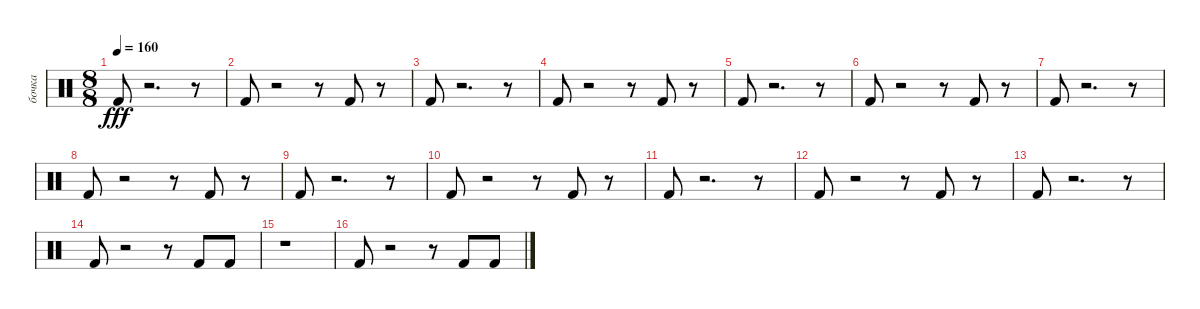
\track ("бочка" "бочка") {instrument percussion}
\staff {score}
\articulation defaults
\ts (8 8)
\tempo 160
\clef neutral
\ks c "Kick (hit) 2".8{dy fff}
r.2{d} r.8 |
"Kick (hit) 2".8 r.2 r.8 "Kick (hit) 2".8 r.8 |
"Kick (hit) 2".8 r.2{d} r.8 |
"Kick (hit) 2".8 r.2 r.8 "Kick (hit) 2".8 r.8 |
"Kick (hit) 2".8 r.2{d} r.8 |
"Kick (hit) 2".8 r.2 r.8 "Kick (hit) 2".8 r.8 |
"Kick (hit) 2".8 r.2{d} r.8 |
"Kick (hit) 2".8 r.2 r.8 "Kick (hit) 2".8 r.8 |
"Kick (hit) 2".8 r.2{d} r.8 |
"Kick (hit) 2".8 r.2 r.8 "Kick (hit) 2".8 r.8 |
"Kick (hit) 2".8 r.2{d} r.8 |
"Kick (hit) 2".8 r.2 r.8 "Kick (hit) 2".8 r.8 |
"Kick (hit) 2".8 r.2{d} r.8 |
"Kick (hit) 2".8 r.2 r.8 "Kick (hit) 2".8 "Kick (hit) 2".8 |
r.1 |
"Kick (hit) 2".8 r.2 r.8 "Kick (hit) 2".8 "Kick (hit) 2".8
